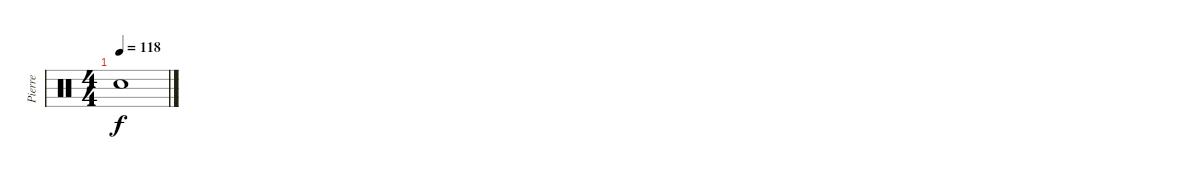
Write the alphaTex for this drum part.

\track ("Pierre" "Pierre") {instrument percussion}
\staff {score}
\articulation defaults
\ts (4 4)
\tempo 118
\clef neutral
\ks c "Snare (hit)"{t}.1{dy f}
